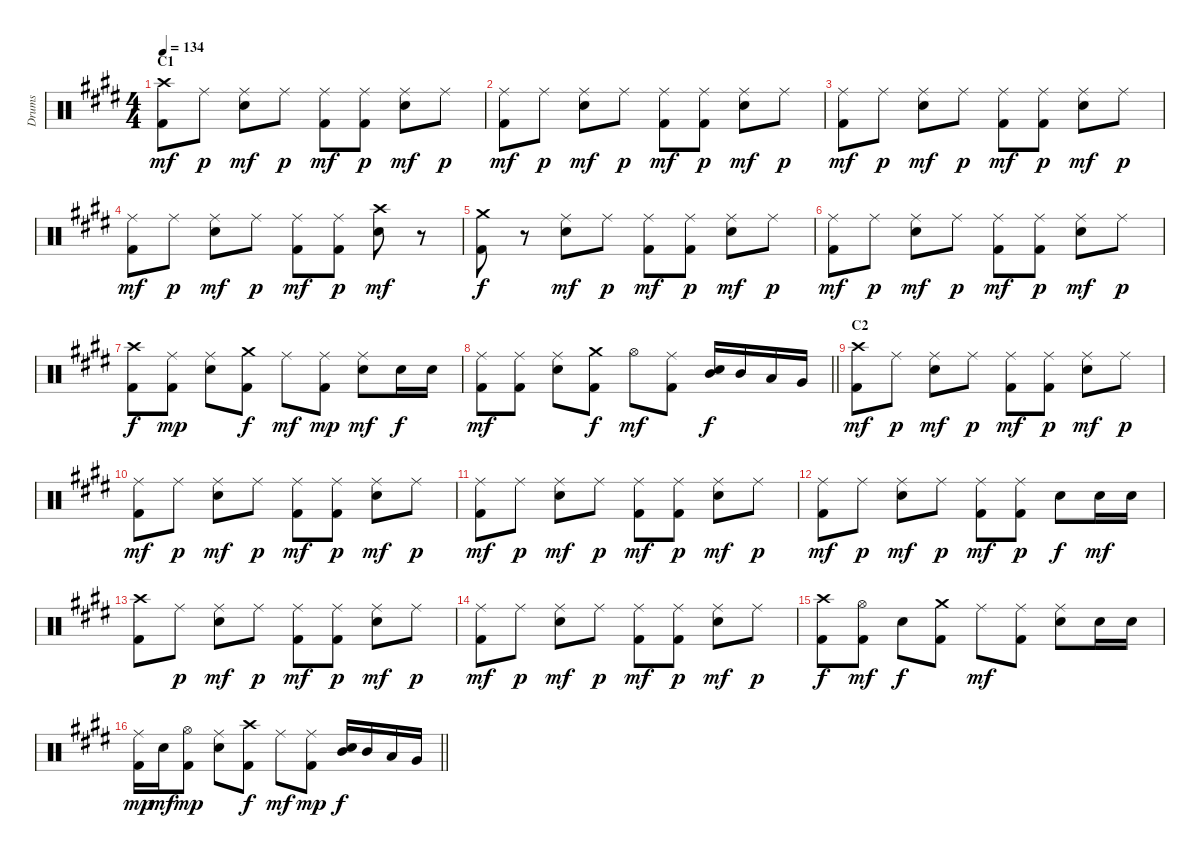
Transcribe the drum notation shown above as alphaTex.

\track ("Drums" "Drums") {instrument percussion}
\staff {score}
\articulation defaults
\ts (4 4)
\section ("" "C1")
\tempo 134
\clef neutral
\ks e
("Crash high (hit)" "Kick (hit) 2").8{dy mf} "Ride (middle)".8{dy p} ("Ride (middle)" "Electric Snare (hit)").8{dy mf} "Ride (middle)".8{dy p} ("Ride (middle)" "Kick (hit) 2").8{dy mf} ("Ride (middle)" "Kick (hit) 2").8{dy p} ("Ride (middle)" "Electric Snare (hit)").8{dy mf} "Ride (middle)".8{dy p} |
("Ride (middle)" "Kick (hit) 2").8{dy mf} "Ride (middle)".8{dy p} ("Ride (middle)" "Electric Snare (hit)").8{dy mf} "Ride (middle)".8{dy p} ("Ride (middle)" "Kick (hit) 2").8{dy mf} ("Ride (middle)" "Kick (hit) 2").8{dy p} ("Ride (middle)" "Electric Snare (hit)").8{dy mf} "Ride (middle)".8{dy p} |
("Ride (middle)" "Kick (hit) 2").8{dy mf} "Ride (middle)".8{dy p} ("Ride (middle)" "Electric Snare (hit)").8{dy mf} "Ride (middle)".8{dy p} ("Ride (middle)" "Kick (hit) 2").8{dy mf} ("Ride (middle)" "Kick (hit) 2").8{dy p} ("Ride (middle)" "Electric Snare (hit)").8{dy mf} "Ride (middle)".8{dy p} |
("Ride (middle)" "Kick (hit) 2").8{dy mf} "Ride (middle)".8{dy p} ("Ride (middle)" "Electric Snare (hit)").8{dy mf} "Ride (middle)".8{dy p} ("Ride (middle)" "Kick (hit) 2").8{dy mf} ("Ride (middle)" "Kick (hit) 2").8{dy p} ("Crash high (hit)" "Electric Snare (hit)").8{dy mf} r.8 |
("Crash medium (hit)" "Kick (hit) 2").8{dy f} r.8 ("Ride (middle)" "Electric Snare (hit)").8{dy mf} "Ride (middle)".8{dy p} ("Ride (middle)" "Kick (hit) 2").8{dy mf} ("Ride (middle)" "Kick (hit) 2").8{dy p} ("Ride (middle)" "Electric Snare (hit)").8{dy mf} "Ride (middle)".8{dy p} |
("Ride (middle)" "Kick (hit) 2").8{dy mf} "Ride (middle)".8{dy p} ("Ride (middle)" "Electric Snare (hit)").8{dy mf} "Ride (middle)".8{dy p} ("Ride (middle)" "Kick (hit) 2").8{dy mf} ("Ride (middle)" "Kick (hit) 2").8{dy p} ("Ride (middle)" "Electric Snare (hit)").8{dy mf} "Ride (middle)".8{dy p} |
("Crash high (hit)" "Kick (hit) 2").8{dy f} ("Ride (middle)" "Kick (hit) 2").8{dy mp} ("Ride (middle)" "Electric Snare (hit)").8 ("Crash medium (hit)" "Kick (hit) 2").8{dy f} "Ride (middle)".8{dy mf} ("Ride (middle)" "Kick (hit) 2").8{dy mp} ("Ride (middle)" "Electric Snare (hit)").8{dy mf} "Electric Snare (hit)".16{dy f} "Electric Snare (hit)".16 |
\barLineRight lightlight
("Ride (middle)" "Kick (hit) 2").8{dy mf} ("Ride (middle)" "Kick (hit) 2").8 ("Ride (middle)" "Electric Snare (hit)").8 ("Crash medium (hit)" "Kick (hit) 2").8{dy f} "Hi-Hat (open)".8{dy mf} ("Ride (middle)" "Kick (hit) 2").8 ("Mid Tom (hit)" "Electric Snare (hit)").16{dy f} "Mid Tom (hit)".16 "Low Tom (hit)".16 "Very Low Tom (hit)".16 |
\section ("" "C2")
("Crash high (hit)" "Kick (hit) 2").8{dy mf} "Ride (middle)".8{dy p} ("Ride (middle)" "Electric Snare (hit)").8{dy mf} "Ride (middle)".8{dy p} ("Ride (middle)" "Kick (hit) 2").8{dy mf} ("Ride (middle)" "Kick (hit) 2").8{dy p} ("Ride (middle)" "Electric Snare (hit)").8{dy mf} "Ride (middle)".8{dy p} |
("Ride (middle)" "Kick (hit) 2").8{dy mf} "Ride (middle)".8{dy p} ("Ride (middle)" "Electric Snare (hit)").8{dy mf} "Ride (middle)".8{dy p} ("Ride (middle)" "Kick (hit) 2").8{dy mf} ("Ride (middle)" "Kick (hit) 2").8{dy p} ("Ride (middle)" "Electric Snare (hit)").8{dy mf} "Ride (middle)".8{dy p} |
("Ride (middle)" "Kick (hit) 2").8{dy mf} "Ride (middle)".8{dy p} ("Ride (middle)" "Electric Snare (hit)").8{dy mf} "Ride (middle)".8{dy p} ("Ride (middle)" "Kick (hit) 2").8{dy mf} ("Ride (middle)" "Kick (hit) 2").8{dy p} ("Ride (middle)" "Electric Snare (hit)").8{dy mf} "Ride (middle)".8{dy p} |
("Ride (middle)" "Kick (hit) 2").8{dy mf} "Ride (middle)".8{dy p} ("Ride (middle)" "Electric Snare (hit)").8{dy mf} "Ride (middle)".8{dy p} ("Ride (middle)" "Kick (hit) 2").8{dy mf} ("Ride (middle)" "Kick (hit) 2").8{dy p} "Electric Snare (hit)".8{dy f} "Electric Snare (hit)".16{dy mf} "Electric Snare (hit)".16 |
("Crash high (hit)" "Kick (hit) 2").8 "Ride (middle)".8{dy p} ("Ride (middle)" "Electric Snare (hit)").8{dy mf} "Ride (middle)".8{dy p} ("Ride (middle)" "Kick (hit) 2").8{dy mf} ("Ride (middle)" "Kick (hit) 2").8{dy p} ("Ride (middle)" "Electric Snare (hit)").8{dy mf} "Ride (middle)".8{dy p} |
("Ride (middle)" "Kick (hit) 2").8{dy mf} "Ride (middle)".8{dy p} ("Ride (middle)" "Electric Snare (hit)").8{dy mf} "Ride (middle)".8{dy p} ("Ride (middle)" "Kick (hit) 2").8{dy mf} ("Ride (middle)" "Kick (hit) 2").8{dy p} ("Ride (middle)" "Electric Snare (hit)").8{dy mf} "Ride (middle)".8{dy p} |
("Crash high (hit)" "Kick (hit) 2").8{dy f} ("Hi-Hat (open)" "Kick (hit) 2").8{dy mf} "Electric Snare (hit)".8{dy f} ("Crash medium (hit)" "Kick (hit) 2").8 "Ride (middle)".8{dy mf} ("Ride (middle)" "Kick (hit) 2").8 ("Ride (middle)" "Electric Snare (hit)").8 "Electric Snare (hit)".16 "Electric Snare (hit)".16 |
\barLineRight lightlight
("Ride (middle)" "Kick (hit) 2").16{dy mp} "Electric Snare (hit)".16{dy mf} ("Hi-Hat (open)" "Kick (hit) 2").8{dy mp} ("Ride (middle)" "Electric Snare (hit)").8 ("Crash high (hit)" "Kick (hit) 2").8{dy f} "Ride (middle)".8{dy mf} ("Ride (middle)" "Kick (hit) 2").8{dy mp} ("Mid Tom (hit)" "Electric Snare (hit)").16{dy f} "Mid Tom (hit)".16 "Low Tom (hit)".16 "Very Low Tom (hit)".16
